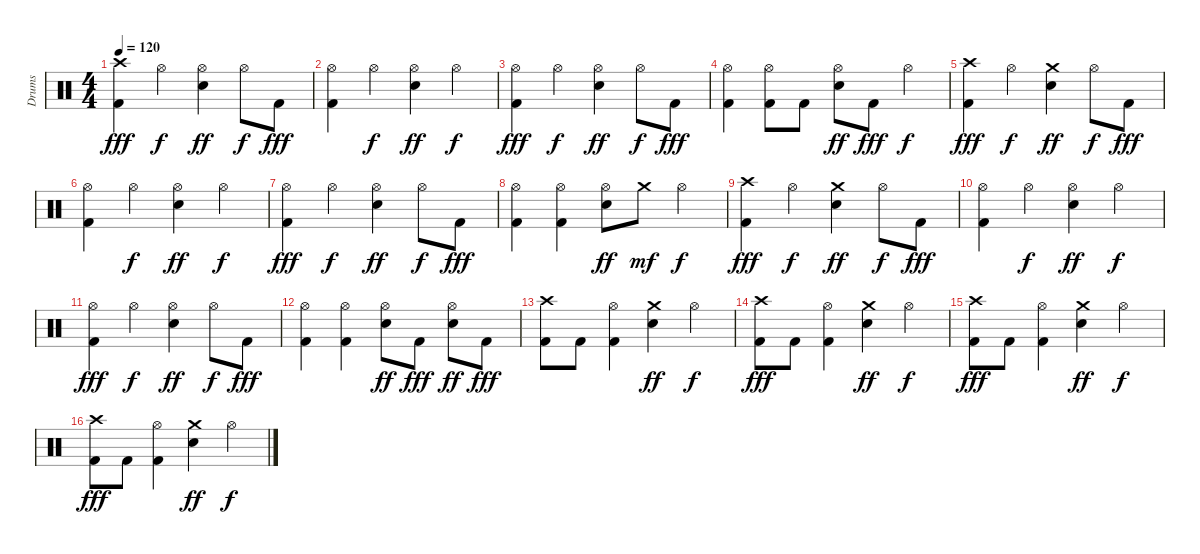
\track ("Drums" "Drums") {instrument percussion}
\staff {score}
\articulation defaults
\ts (4 4)
\tempo 120
\clef neutral
\ks c
("Crash high (hit)" "Kick (hit) 2").4{dy fff} "Hi-Hat (open)".4{dy f} ("Hi-Hat (open)" "Snare (hit) 2").4{dy ff} "Hi-Hat (open)".8{dy f} "Kick (hit) 2".8{dy fff} |
("Hi-Hat (open)" "Kick (hit) 2").4 "Hi-Hat (open)".4{dy f} ("Hi-Hat (open)" "Snare (hit) 2").4{dy ff} "Hi-Hat (open)".4{dy f} |
("Hi-Hat (open)" "Kick (hit) 2").4{dy fff} "Hi-Hat (open)".4{dy f} ("Hi-Hat (open)" "Snare (hit) 2").4{dy ff} "Hi-Hat (open)".8{dy f} "Kick (hit) 2".8{dy fff} |
("Hi-Hat (open)" "Kick (hit) 2").4 ("Hi-Hat (open)" "Kick (hit) 2").8 "Kick (hit) 2".8 ("Hi-Hat (open)" "Snare (hit) 2").8{dy ff} "Kick (hit) 2".8{dy fff} "Hi-Hat (open)".4{dy f} |
("Crash high (hit)" "Kick (hit) 2").4{dy fff} "Hi-Hat (open)".4{dy f} ("Crash medium (hit)" "Snare (hit) 2").4{dy ff} "Hi-Hat (open)".8{dy f} "Kick (hit) 2".8{dy fff} |
("Hi-Hat (open)" "Kick (hit) 2").4 "Hi-Hat (open)".4{dy f} ("Hi-Hat (open)" "Snare (hit) 2").4{dy ff} "Hi-Hat (open)".4{dy f} |
("Hi-Hat (open)" "Kick (hit) 2").4{dy fff} "Hi-Hat (open)".4{dy f} ("Hi-Hat (open)" "Snare (hit) 2").4{dy ff} "Hi-Hat (open)".8{dy f} "Kick (hit) 2".8{dy fff} |
("Hi-Hat (open)" "Kick (hit) 2").4 ("Hi-Hat (open)" "Kick (hit) 2").4 ("Hi-Hat (open)" "Snare (hit) 2").8{dy ff} "Crash medium (hit)".8{dy mf} "Hi-Hat (open)".4{dy f} |
("Crash high (hit)" "Kick (hit) 2").4{dy fff} "Hi-Hat (open)".4{dy f} ("Crash medium (hit)" "Snare (hit) 2").4{dy ff} "Hi-Hat (open)".8{dy f} "Kick (hit) 2".8{dy fff} |
("Hi-Hat (open)" "Kick (hit) 2").4 "Hi-Hat (open)".4{dy f} ("Hi-Hat (open)" "Snare (hit) 2").4{dy ff} "Hi-Hat (open)".4{dy f} |
("Hi-Hat (open)" "Kick (hit) 2").4{dy fff} "Hi-Hat (open)".4{dy f} ("Hi-Hat (open)" "Snare (hit) 2").4{dy ff} "Hi-Hat (open)".8{dy f} "Kick (hit) 2".8{dy fff} |
("Hi-Hat (open)" "Kick (hit) 2").4 ("Hi-Hat (open)" "Kick (hit) 2").4 ("Hi-Hat (open)" "Snare (hit) 2").8{dy ff} "Kick (hit) 2".8{dy fff} ("Hi-Hat (open)" "Snare (hit) 2").8{dy ff} "Kick (hit) 2".8{dy fff} |
("Crash high (hit)" "Kick (hit) 2").8 "Kick (hit) 2".8 ("Hi-Hat (open)" "Kick (hit) 2").4 ("Crash medium (hit)" "Snare (hit) 2").4{dy ff} "Hi-Hat (open)".4{dy f} |
("Crash high (hit)" "Kick (hit) 2").8{dy fff} "Kick (hit) 2".8 ("Hi-Hat (open)" "Kick (hit) 2").4 ("Crash medium (hit)" "Snare (hit) 2").4{dy ff} "Hi-Hat (open)".4{dy f} |
("Crash high (hit)" "Kick (hit) 2").8{dy fff} "Kick (hit) 2".8 ("Hi-Hat (open)" "Kick (hit) 2").4 ("Crash medium (hit)" "Snare (hit) 2").4{dy ff} "Hi-Hat (open)".4{dy f} |
("Crash high (hit)" "Kick (hit) 2").8{dy fff} "Kick (hit) 2".8 ("Hi-Hat (open)" "Kick (hit) 2").4 ("Crash medium (hit)" "Snare (hit) 2").4{dy ff} "Hi-Hat (open)".4{dy f}
